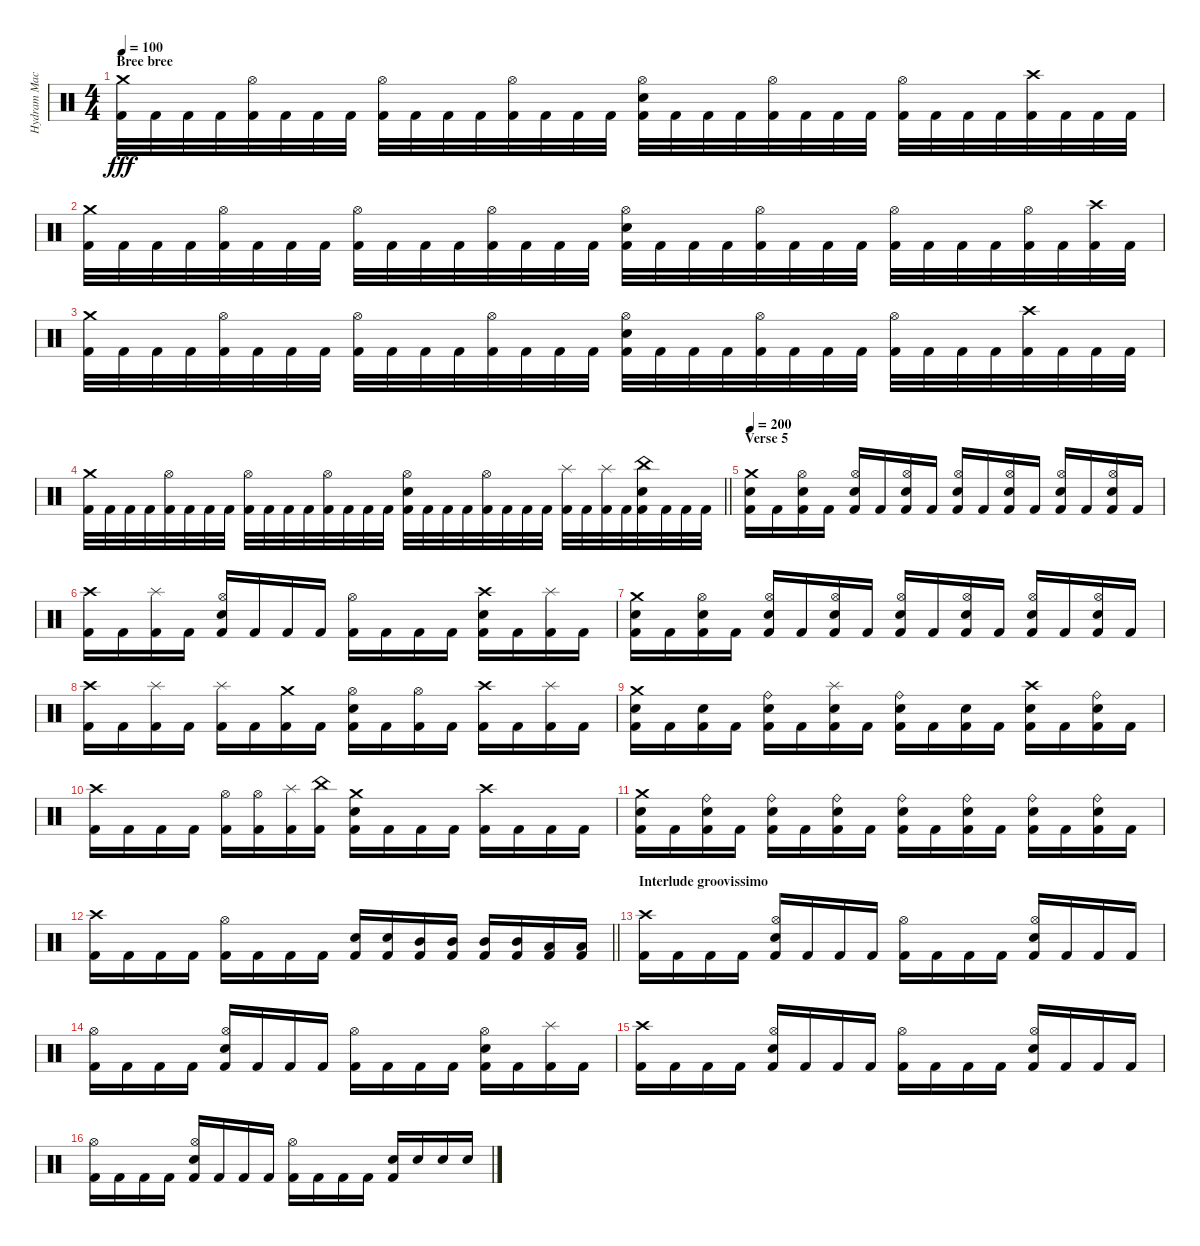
\track ("Hydram Machine" "Hydram Mac") {instrument percussion}
\staff {score}
\articulation defaults
\ts (4 4)
\section ("" "Bree bree")
\tempo 100
\clef neutral
\ks c
("Crash medium (hit)" "Kick (hit) 2").32{dy fff} "Kick (hit) 2".32 "Kick (hit) 2".32 "Kick (hit) 2".32 ("Hi-Hat (open)" "Kick (hit) 2").32 "Kick (hit) 2".32 "Kick (hit) 2".32 "Kick (hit) 2".32 ("Hi-Hat (open)" "Kick (hit) 2").32 "Kick (hit) 2".32 "Kick (hit) 2".32 "Kick (hit) 2".32 ("Hi-Hat (open)" "Kick (hit) 2").32 "Kick (hit) 2".32 "Kick (hit) 2".32 "Kick (hit) 2".32 ("Hi-Hat (open)" "Electric Snare (hit)" "Kick (hit) 2").32 "Kick (hit) 2".32 "Kick (hit) 2".32 "Kick (hit) 2".32 ("Hi-Hat (open)" "Kick (hit) 2").32 "Kick (hit) 2".32 "Kick (hit) 2".32 "Kick (hit) 2".32 ("Hi-Hat (open)" "Kick (hit) 2").32 "Kick (hit) 2".32 "Kick (hit) 2".32 "Kick (hit) 2".32 ("Crash high (hit)" "Kick (hit) 2").32 "Kick (hit) 2".32 "Kick (hit) 2".32 "Kick (hit) 2".32 |
("Crash medium (hit)" "Kick (hit) 2").32 "Kick (hit) 2".32 "Kick (hit) 2".32 "Kick (hit) 2".32 ("Hi-Hat (open)" "Kick (hit) 2").32 "Kick (hit) 2".32 "Kick (hit) 2".32 "Kick (hit) 2".32 ("Hi-Hat (open)" "Kick (hit) 2").32 "Kick (hit) 2".32 "Kick (hit) 2".32 "Kick (hit) 2".32 ("Hi-Hat (open)" "Kick (hit) 2").32 "Kick (hit) 2".32 "Kick (hit) 2".32 "Kick (hit) 2".32 ("Hi-Hat (open)" "Electric Snare (hit)" "Kick (hit) 2").32 "Kick (hit) 2".32 "Kick (hit) 2".32 "Kick (hit) 2".32 ("Hi-Hat (open)" "Kick (hit) 2").32 "Kick (hit) 2".32 "Kick (hit) 2".32 "Kick (hit) 2".32 ("Hi-Hat (open)" "Kick (hit) 2").32 "Kick (hit) 2".32 "Kick (hit) 2".32 "Kick (hit) 2".32 ("Hi-Hat (open)" "Kick (hit) 2").32 "Kick (hit) 2".32 ("Crash high (hit)" "Kick (hit) 2").32 "Kick (hit) 2".32 |
("Crash medium (hit)" "Kick (hit) 2").32 "Kick (hit) 2".32 "Kick (hit) 2".32 "Kick (hit) 2".32 ("Hi-Hat (open)" "Kick (hit) 2").32 "Kick (hit) 2".32 "Kick (hit) 2".32 "Kick (hit) 2".32 ("Hi-Hat (open)" "Kick (hit) 2").32 "Kick (hit) 2".32 "Kick (hit) 2".32 "Kick (hit) 2".32 ("Hi-Hat (open)" "Kick (hit) 2").32 "Kick (hit) 2".32 "Kick (hit) 2".32 "Kick (hit) 2".32 ("Hi-Hat (open)" "Electric Snare (hit)" "Kick (hit) 2").32 "Kick (hit) 2".32 "Kick (hit) 2".32 "Kick (hit) 2".32 ("Hi-Hat (open)" "Kick (hit) 2").32 "Kick (hit) 2".32 "Kick (hit) 2".32 "Kick (hit) 2".32 ("Hi-Hat (open)" "Kick (hit) 2").32 "Kick (hit) 2".32 "Kick (hit) 2".32 "Kick (hit) 2".32 ("Crash high (hit)" "Kick (hit) 2").32 "Kick (hit) 2".32 "Kick (hit) 2".32 "Kick (hit) 2".32 |
\barLineRight lightlight
("Crash medium (hit)" "Kick (hit) 2").32 "Kick (hit) 2".32 "Kick (hit) 2".32 "Kick (hit) 2".32 ("Hi-Hat (open)" "Kick (hit) 2").32 "Kick (hit) 2".32 "Kick (hit) 2".32 "Kick (hit) 2".32 ("Hi-Hat (open)" "Kick (hit) 2").32 "Kick (hit) 2".32 "Kick (hit) 2".32 "Kick (hit) 2".32 ("Hi-Hat (open)" "Kick (hit) 2").32 "Kick (hit) 2".32 "Kick (hit) 2".32 "Kick (hit) 2".32 ("Hi-Hat (open)" "Electric Snare (hit)" "Kick (hit) 2").32 "Kick (hit) 2".32 "Kick (hit) 2".32 "Kick (hit) 2".32 ("Hi-Hat (open)" "Kick (hit) 2").32 "Kick (hit) 2".32 "Kick (hit) 2".32 "Kick (hit) 2".32 ("Splash (hit)" "Kick (hit) 2").32 "Kick (hit) 2".32 ("Splash (hit)" "Kick (hit) 2").32 "Kick (hit) 2".32 ("China (hit)" "Electric Snare (hit)" "Kick (hit) 2").32 "Kick (hit) 2".32 "Kick (hit) 2".32 "Kick (hit) 2".32 |
\section ("" "Verse 5")
\tempo 200
("Crash medium (hit)" "Electric Snare (hit)" "Kick (hit) 2").16 "Kick (hit) 2".16 ("Hi-Hat (open)" "Electric Snare (hit)" "Kick (hit) 2").16 "Kick (hit) 2".16 ("Hi-Hat (open)" "Electric Snare (hit)" "Kick (hit) 2").16 "Kick (hit) 2".16 ("Hi-Hat (open)" "Electric Snare (hit)" "Kick (hit) 2").16 "Kick (hit) 2".16 ("Hi-Hat (open)" "Electric Snare (hit)" "Kick (hit) 2").16 "Kick (hit) 2".16 ("Hi-Hat (open)" "Electric Snare (hit)" "Kick (hit) 2").16 "Kick (hit) 2".16 ("Hi-Hat (open)" "Electric Snare (hit)" "Kick (hit) 2").16 "Kick (hit) 2".16 ("Hi-Hat (open)" "Electric Snare (hit)" "Kick (hit) 2").16 "Kick (hit) 2".16 |
("Crash high (hit)" "Kick (hit) 2").16 "Kick (hit) 2".16 ("Splash (hit)" "Kick (hit) 2").16 "Kick (hit) 2".16 ("Hi-Hat (open)" "Electric Snare (hit)" "Kick (hit) 2").16 "Kick (hit) 2".16 "Kick (hit) 2".16 "Kick (hit) 2".16 ("Hi-Hat (open)" "Kick (hit) 2").16 "Kick (hit) 2".16 "Kick (hit) 2".16 "Kick (hit) 2".16 ("Crash high (hit)" "Electric Snare (hit)" "Kick (hit) 2").16 "Kick (hit) 2".16 ("Splash (hit)" "Kick (hit) 2").16 "Kick (hit) 2".16 |
("Crash medium (hit)" "Electric Snare (hit)" "Kick (hit) 2").16 "Kick (hit) 2".16 ("Hi-Hat (open)" "Electric Snare (hit)" "Kick (hit) 2").16 "Kick (hit) 2".16 ("Hi-Hat (open)" "Electric Snare (hit)" "Kick (hit) 2").16 "Kick (hit) 2".16 ("Hi-Hat (open)" "Electric Snare (hit)" "Kick (hit) 2").16 "Kick (hit) 2".16 ("Hi-Hat (open)" "Electric Snare (hit)" "Kick (hit) 2").16 "Kick (hit) 2".16 ("Hi-Hat (open)" "Electric Snare (hit)" "Kick (hit) 2").16 "Kick (hit) 2".16 ("Hi-Hat (open)" "Electric Snare (hit)" "Kick (hit) 2").16 "Kick (hit) 2".16 ("Hi-Hat (open)" "Electric Snare (hit)" "Kick (hit) 2").16 "Kick (hit) 2".16 |
("Crash high (hit)" "Kick (hit) 2").16 "Kick (hit) 2".16 ("Splash (hit)" "Kick (hit) 2").16 "Kick (hit) 2".16 ("Splash (hit)" "Kick (hit) 2").16 "Kick (hit) 2".16 ("Crash medium (hit)" "Kick (hit) 2").16 "Kick (hit) 2".16 ("Hi-Hat (open)" "Electric Snare (hit)" "Kick (hit) 2").16 "Kick (hit) 2".16 ("Hi-Hat (open)" "Kick (hit) 2").16 "Kick (hit) 2".16 ("Crash high (hit)" "Kick (hit) 2").16 "Kick (hit) 2".16 ("Splash (hit)" "Kick (hit) 2").16 "Kick (hit) 2".16 |
("Crash medium (hit)" "Electric Snare (hit)" "Kick (hit) 2").16 "Kick (hit) 2".16 ("Electric Snare (hit)" "Kick (hit) 2").16 "Kick (hit) 2".16 ("Ride (bell)" "Electric Snare (hit)" "Kick (hit) 2").16 "Kick (hit) 2".16 ("Splash (hit)" "Electric Snare (hit)" "Kick (hit) 2").16 "Kick (hit) 2".16 ("Ride (bell)" "Electric Snare (hit)" "Kick (hit) 2").16 "Kick (hit) 2".16 ("Electric Snare (hit)" "Kick (hit) 2").16 "Kick (hit) 2".16 ("Crash high (hit)" "Electric Snare (hit)" "Kick (hit) 2").16 "Kick (hit) 2".16 ("Ride (bell)" "Electric Snare (hit)" "Kick (hit) 2").16 "Kick (hit) 2".16 |
("Crash high (hit)" "Kick (hit) 2").16 "Kick (hit) 2".16 "Kick (hit) 2".16 "Kick (hit) 2".16 ("Hi-Hat (open)" "Kick (hit) 2").16 ("Hi-Hat (open)" "Kick (hit) 2").16 ("Splash (hit)" "Kick (hit) 2").16 ("China (hit)" "Kick (hit) 2").16 ("Crash medium (hit)" "Electric Snare (hit)" "Kick (hit) 2").16 "Kick (hit) 2".16 "Kick (hit) 2".16 "Kick (hit) 2".16 ("Crash high (hit)" "Kick (hit) 2").16 "Kick (hit) 2".16 "Kick (hit) 2".16 "Kick (hit) 2".16 |
("Crash medium (hit)" "Electric Snare (hit)" "Kick (hit) 2").16 "Kick (hit) 2".16 ("Ride (bell)" "Electric Snare (hit)" "Kick (hit) 2").16 "Kick (hit) 2".16 ("Ride (bell)" "Electric Snare (hit)" "Kick (hit) 2").16 "Kick (hit) 2".16 ("Ride (bell)" "Electric Snare (hit)" "Kick (hit) 2").16 "Kick (hit) 2".16 ("Ride (bell)" "Electric Snare (hit)" "Kick (hit) 2").16 "Kick (hit) 2".16 ("Ride (bell)" "Electric Snare (hit)" "Kick (hit) 2").16 "Kick (hit) 2".16 ("Ride (bell)" "Electric Snare (hit)" "Kick (hit) 2").16 "Kick (hit) 2".16 ("Ride (bell)" "Electric Snare (hit)" "Kick (hit) 2").16 "Kick (hit) 2".16 |
\barLineRight lightlight
("Crash high (hit)" "Kick (hit) 2").16 "Kick (hit) 2".16 "Kick (hit) 2".16 "Kick (hit) 2".16 ("Hi-Hat (open)" "Kick (hit) 2").16 "Kick (hit) 2".16 "Kick (hit) 2".16 "Kick (hit) 2".16 ("Electric Snare (hit)" "Kick (hit) 2").16 ("Electric Snare (hit)" "Kick (hit) 2").16 ("Mid Tom (hit)" "Kick (hit) 2").16 ("Mid Tom (hit)" "Kick (hit) 2").16 ("Mid Tom (hit)" "Kick (hit) 2").16 ("Mid Tom (hit)" "Kick (hit) 2").16 ("Low Tom (hit)" "Kick (hit) 2").16 ("Low Tom (hit)" "Kick (hit) 2").16 |
\section ("" "Interlude groovissimo")
("Crash high (hit)" "Kick (hit) 2").16 "Kick (hit) 2".16 "Kick (hit) 2".16 "Kick (hit) 2".16 ("Hi-Hat (open)" "Electric Snare (hit)" "Kick (hit) 2").16 "Kick (hit) 2".16 "Kick (hit) 2".16 "Kick (hit) 2".16 ("Hi-Hat (open)" "Kick (hit) 2").16 "Kick (hit) 2".16 "Kick (hit) 2".16 "Kick (hit) 2".16 ("Hi-Hat (open)" "Electric Snare (hit)" "Kick (hit) 2").16 "Kick (hit) 2".16 "Kick (hit) 2".16 "Kick (hit) 2".16 |
("Hi-Hat (open)" "Kick (hit) 2").16 "Kick (hit) 2".16 "Kick (hit) 2".16 "Kick (hit) 2".16 ("Hi-Hat (open)" "Electric Snare (hit)" "Kick (hit) 2").16 "Kick (hit) 2".16 "Kick (hit) 2".16 "Kick (hit) 2".16 ("Hi-Hat (open)" "Kick (hit) 2").16 "Kick (hit) 2".16 "Kick (hit) 2".16 "Kick (hit) 2".16 ("Hi-Hat (open)" "Electric Snare (hit)" "Kick (hit) 2").16 "Kick (hit) 2".16 ("Splash (hit)" "Kick (hit) 2").16 "Kick (hit) 2".16 |
("Crash high (hit)" "Kick (hit) 2").16 "Kick (hit) 2".16 "Kick (hit) 2".16 "Kick (hit) 2".16 ("Hi-Hat (open)" "Electric Snare (hit)" "Kick (hit) 2").16 "Kick (hit) 2".16 "Kick (hit) 2".16 "Kick (hit) 2".16 ("Hi-Hat (open)" "Kick (hit) 2").16 "Kick (hit) 2".16 "Kick (hit) 2".16 "Kick (hit) 2".16 ("Hi-Hat (open)" "Electric Snare (hit)" "Kick (hit) 2").16 "Kick (hit) 2".16 "Kick (hit) 2".16 "Kick (hit) 2".16 |
("Hi-Hat (open)" "Kick (hit) 2").16 "Kick (hit) 2".16 "Kick (hit) 2".16 "Kick (hit) 2".16 ("Hi-Hat (open)" "Electric Snare (hit)" "Kick (hit) 2").16 "Kick (hit) 2".16 "Kick (hit) 2".16 "Kick (hit) 2".16 ("Hi-Hat (open)" "Kick (hit) 2").16 "Kick (hit) 2".16 "Kick (hit) 2".16 "Kick (hit) 2".16 ("Electric Snare (hit)" "Kick (hit) 2").16 "Electric Snare (hit)".16 "Electric Snare (hit)".16 "Electric Snare (hit)".16
